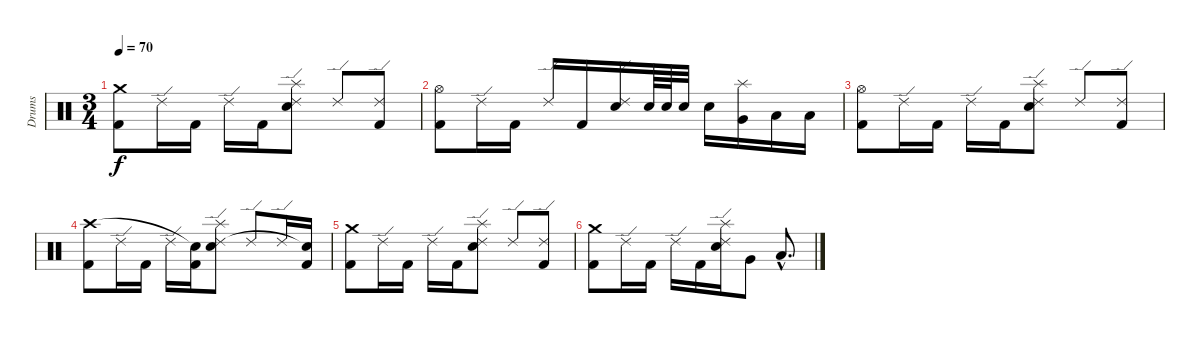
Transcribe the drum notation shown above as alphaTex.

\track ("Drums" "Drums") {instrument percussion}
\staff {score}
\articulation defaults
\ts (3 4)
\tempo 70
\clef neutral
\ks c
("Kick (hit) 2" "Crash medium (hit)").8{dy f} "Ride (edge) 2".16 "Kick (hit) 2".16 "Ride (edge) 2".16 "Kick (hit) 2".16 ("Snare (hit) 2" "Ride (edge) 2" "Splash (hit)").8 "Ride (edge) 2".8 ("Kick (hit) 2" "Ride (edge) 2").8 |
("Kick (hit) 2" "Hi-Hat (open)").8 "Ride (edge) 2".16 "Kick (hit) 2".16 "Ride (edge) 2".16 "Kick (hit) 2".16 ("Snare (hit) 2" "Ride (edge) 2").16 "Snare (hit) 2".64 "Snare (hit) 2".64 "Snare (hit) 2".32 "Snare (hit) 2".16 ("Very Low Tom (hit)" "Splash (hit)").16 "Low Tom (hit)".16 "Low Floor Tom (hit)".16 |
("Kick (hit) 2" "Hi-Hat (open)").8 "Ride (edge) 2".16 "Kick (hit) 2".16 "Ride (edge) 2".16 "Kick (hit) 2".16 ("Snare (hit) 2" "Ride (edge) 2" "Splash (hit)").8 "Ride (edge) 2".8 ("Kick (hit) 2" "Ride (edge) 2").8 |
("Kick (hit) 2" "Crash high (hit)").8 "Ride (edge) 2".16 "Kick (hit) 2".16 "Ride (edge) 2".16 ("Kick (hit) 2" "Snare (hit)"{t}).16 ("Snare (hit) 2" "Ride (edge) 2" "Splash (hit)").8 "Ride (edge) 2".8 "Ride (edge) 2".16 ("Kick (hit) 2" "Snare (hit)"{t}).16 |
("Kick (hit) 2" "Crash medium (hit)").8 "Ride (edge) 2".16 "Kick (hit) 2".16 "Ride (edge) 2".16 "Kick (hit) 2".16 ("Snare (hit) 2" "Ride (edge) 2" "Splash (hit)").8 "Ride (edge) 2".8 ("Kick (hit) 2" "Ride (edge) 2").8 |
("Kick (hit) 2" "Crash medium (hit)").8 "Ride (edge) 2".16 "Kick (hit) 2".16 "Ride (edge) 2".16 "Kick (hit) 2".16 ("Snare (hit) 2" "Ride (edge) 2" "Splash (hit)").16 "Very Low Tom (hit)".8 "Low Floor Tom (hit)"{hac}.8{d}
